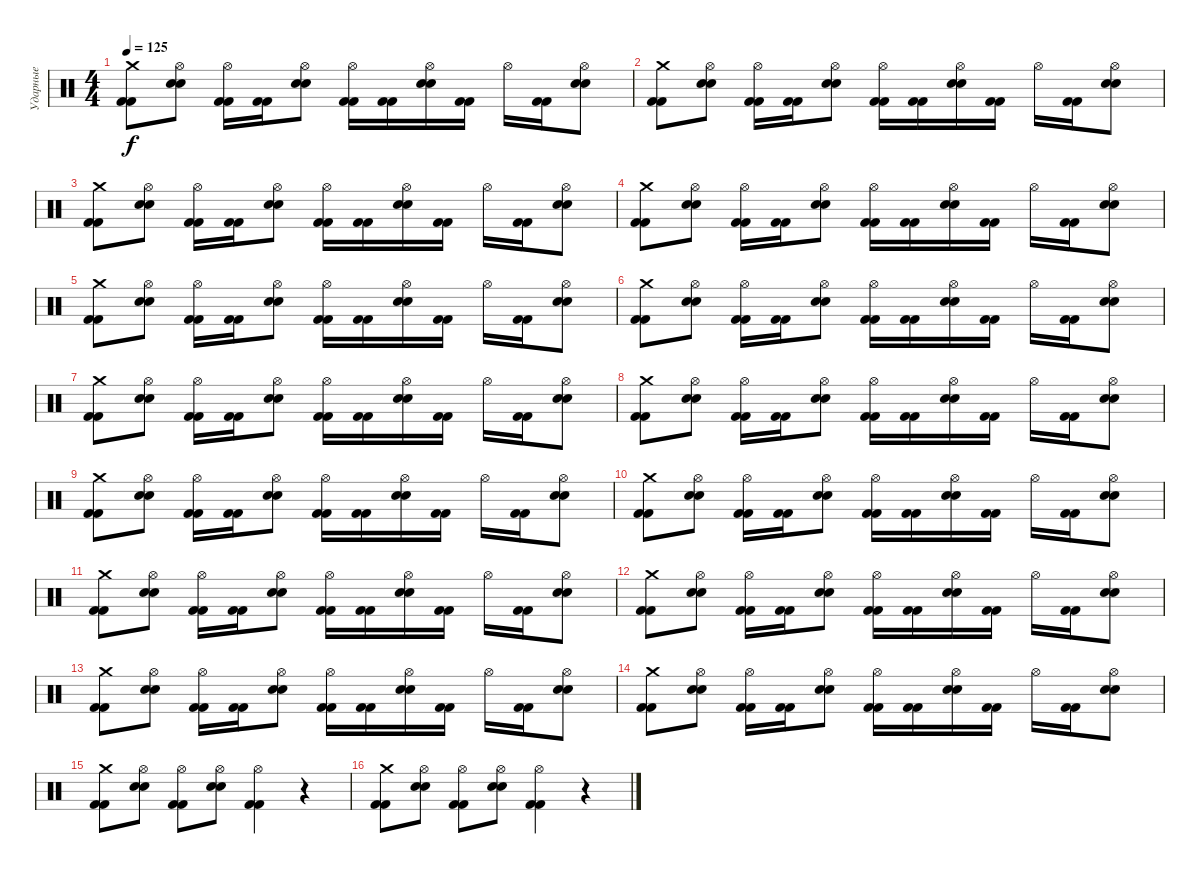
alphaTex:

\track ("Ударные" "Ударные") {instrument percussion}
\staff {score}
\articulation defaults
\ts (4 4)
\tempo 125
\clef neutral
\ks c
("Crash medium (hit)" "Kick (hit) 2" "Kick (hit) 2").8{dy f} ("Hi-Hat (open)" "Electric Snare (hit)" "Electric Snare (hit)").8 ("Hi-Hat (open)" "Kick (hit) 2" "Kick (hit) 2").16 ("Kick (hit) 2" "Kick (hit) 2").16 ("Hi-Hat (open)" "Electric Snare (hit)" "Electric Snare (hit)").8 ("Hi-Hat (open)" "Kick (hit) 2" "Kick (hit) 2").16 ("Kick (hit) 2" "Kick (hit) 2").16 ("Hi-Hat (open)" "Electric Snare (hit)" "Electric Snare (hit)").16 ("Kick (hit) 2" "Kick (hit) 2").16 "Hi-Hat (open)".16 ("Kick (hit) 2" "Kick (hit) 2").16 ("Hi-Hat (open)" "Electric Snare (hit)" "Electric Snare (hit)").8 |
("Crash medium (hit)" "Kick (hit) 2" "Kick (hit) 2").8 ("Hi-Hat (open)" "Electric Snare (hit)" "Electric Snare (hit)").8 ("Hi-Hat (open)" "Kick (hit) 2" "Kick (hit) 2").16 ("Kick (hit) 2" "Kick (hit) 2").16 ("Hi-Hat (open)" "Electric Snare (hit)" "Electric Snare (hit)").8 ("Hi-Hat (open)" "Kick (hit) 2" "Kick (hit) 2").16 ("Kick (hit) 2" "Kick (hit) 2").16 ("Hi-Hat (open)" "Electric Snare (hit)" "Electric Snare (hit)").16 ("Kick (hit) 2" "Kick (hit) 2").16 "Hi-Hat (open)".16 ("Kick (hit) 2" "Kick (hit) 2").16 ("Hi-Hat (open)" "Electric Snare (hit)" "Electric Snare (hit)").8 |
("Crash medium (hit)" "Kick (hit) 2" "Kick (hit) 2").8 ("Hi-Hat (open)" "Electric Snare (hit)" "Electric Snare (hit)").8 ("Hi-Hat (open)" "Kick (hit) 2" "Kick (hit) 2").16 ("Kick (hit) 2" "Kick (hit) 2").16 ("Hi-Hat (open)" "Electric Snare (hit)" "Electric Snare (hit)").8 ("Hi-Hat (open)" "Kick (hit) 2" "Kick (hit) 2").16 ("Kick (hit) 2" "Kick (hit) 2").16 ("Hi-Hat (open)" "Electric Snare (hit)" "Electric Snare (hit)").16 ("Kick (hit) 2" "Kick (hit) 2").16 "Hi-Hat (open)".16 ("Kick (hit) 2" "Kick (hit) 2").16 ("Hi-Hat (open)" "Electric Snare (hit)" "Electric Snare (hit)").8 |
("Crash medium (hit)" "Kick (hit) 2" "Kick (hit) 2").8 ("Hi-Hat (open)" "Electric Snare (hit)" "Electric Snare (hit)").8 ("Hi-Hat (open)" "Kick (hit) 2" "Kick (hit) 2").16 ("Kick (hit) 2" "Kick (hit) 2").16 ("Hi-Hat (open)" "Electric Snare (hit)" "Electric Snare (hit)").8 ("Hi-Hat (open)" "Kick (hit) 2" "Kick (hit) 2").16 ("Kick (hit) 2" "Kick (hit) 2").16 ("Hi-Hat (open)" "Electric Snare (hit)" "Electric Snare (hit)").16 ("Kick (hit) 2" "Kick (hit) 2").16 "Hi-Hat (open)".16 ("Kick (hit) 2" "Kick (hit) 2").16 ("Hi-Hat (open)" "Electric Snare (hit)" "Electric Snare (hit)").8 |
("Crash medium (hit)" "Kick (hit) 2" "Kick (hit) 2").8 ("Hi-Hat (open)" "Electric Snare (hit)" "Electric Snare (hit)").8 ("Hi-Hat (open)" "Kick (hit) 2" "Kick (hit) 2").16 ("Kick (hit) 2" "Kick (hit) 2").16 ("Hi-Hat (open)" "Electric Snare (hit)" "Electric Snare (hit)").8 ("Hi-Hat (open)" "Kick (hit) 2" "Kick (hit) 2").16 ("Kick (hit) 2" "Kick (hit) 2").16 ("Hi-Hat (open)" "Electric Snare (hit)" "Electric Snare (hit)").16 ("Kick (hit) 2" "Kick (hit) 2").16 "Hi-Hat (open)".16 ("Kick (hit) 2" "Kick (hit) 2").16 ("Hi-Hat (open)" "Electric Snare (hit)" "Electric Snare (hit)").8 |
("Crash medium (hit)" "Kick (hit) 2" "Kick (hit) 2").8 ("Hi-Hat (open)" "Electric Snare (hit)" "Electric Snare (hit)").8 ("Hi-Hat (open)" "Kick (hit) 2" "Kick (hit) 2").16 ("Kick (hit) 2" "Kick (hit) 2").16 ("Hi-Hat (open)" "Electric Snare (hit)" "Electric Snare (hit)").8 ("Hi-Hat (open)" "Kick (hit) 2" "Kick (hit) 2").16 ("Kick (hit) 2" "Kick (hit) 2").16 ("Hi-Hat (open)" "Electric Snare (hit)" "Electric Snare (hit)").16 ("Kick (hit) 2" "Kick (hit) 2").16 "Hi-Hat (open)".16 ("Kick (hit) 2" "Kick (hit) 2").16 ("Hi-Hat (open)" "Electric Snare (hit)" "Electric Snare (hit)").8 |
("Crash medium (hit)" "Kick (hit) 2" "Kick (hit) 2").8 ("Hi-Hat (open)" "Electric Snare (hit)" "Electric Snare (hit)").8 ("Hi-Hat (open)" "Kick (hit) 2" "Kick (hit) 2").16 ("Kick (hit) 2" "Kick (hit) 2").16 ("Hi-Hat (open)" "Electric Snare (hit)" "Electric Snare (hit)").8 ("Hi-Hat (open)" "Kick (hit) 2" "Kick (hit) 2").16 ("Kick (hit) 2" "Kick (hit) 2").16 ("Hi-Hat (open)" "Electric Snare (hit)" "Electric Snare (hit)").16 ("Kick (hit) 2" "Kick (hit) 2").16 "Hi-Hat (open)".16 ("Kick (hit) 2" "Kick (hit) 2").16 ("Hi-Hat (open)" "Electric Snare (hit)" "Electric Snare (hit)").8 |
("Crash medium (hit)" "Kick (hit) 2" "Kick (hit) 2").8 ("Hi-Hat (open)" "Electric Snare (hit)" "Electric Snare (hit)").8 ("Hi-Hat (open)" "Kick (hit) 2" "Kick (hit) 2").16 ("Kick (hit) 2" "Kick (hit) 2").16 ("Hi-Hat (open)" "Electric Snare (hit)" "Electric Snare (hit)").8 ("Hi-Hat (open)" "Kick (hit) 2" "Kick (hit) 2").16 ("Kick (hit) 2" "Kick (hit) 2").16 ("Hi-Hat (open)" "Electric Snare (hit)" "Electric Snare (hit)").16 ("Kick (hit) 2" "Kick (hit) 2").16 "Hi-Hat (open)".16 ("Kick (hit) 2" "Kick (hit) 2").16 ("Hi-Hat (open)" "Electric Snare (hit)" "Electric Snare (hit)").8 |
("Crash medium (hit)" "Kick (hit) 2" "Kick (hit) 2").8 ("Hi-Hat (open)" "Electric Snare (hit)" "Electric Snare (hit)").8 ("Hi-Hat (open)" "Kick (hit) 2" "Kick (hit) 2").16 ("Kick (hit) 2" "Kick (hit) 2").16 ("Hi-Hat (open)" "Electric Snare (hit)" "Electric Snare (hit)").8 ("Hi-Hat (open)" "Kick (hit) 2" "Kick (hit) 2").16 ("Kick (hit) 2" "Kick (hit) 2").16 ("Hi-Hat (open)" "Electric Snare (hit)" "Electric Snare (hit)").16 ("Kick (hit) 2" "Kick (hit) 2").16 "Hi-Hat (open)".16 ("Kick (hit) 2" "Kick (hit) 2").16 ("Hi-Hat (open)" "Electric Snare (hit)" "Electric Snare (hit)").8 |
("Crash medium (hit)" "Kick (hit) 2" "Kick (hit) 2").8 ("Hi-Hat (open)" "Electric Snare (hit)" "Electric Snare (hit)").8 ("Hi-Hat (open)" "Kick (hit) 2" "Kick (hit) 2").16 ("Kick (hit) 2" "Kick (hit) 2").16 ("Hi-Hat (open)" "Electric Snare (hit)" "Electric Snare (hit)").8 ("Hi-Hat (open)" "Kick (hit) 2" "Kick (hit) 2").16 ("Kick (hit) 2" "Kick (hit) 2").16 ("Hi-Hat (open)" "Electric Snare (hit)" "Electric Snare (hit)").16 ("Kick (hit) 2" "Kick (hit) 2").16 "Hi-Hat (open)".16 ("Kick (hit) 2" "Kick (hit) 2").16 ("Hi-Hat (open)" "Electric Snare (hit)" "Electric Snare (hit)").8 |
("Crash medium (hit)" "Kick (hit) 2" "Kick (hit) 2").8 ("Hi-Hat (open)" "Electric Snare (hit)" "Electric Snare (hit)").8 ("Hi-Hat (open)" "Kick (hit) 2" "Kick (hit) 2").16 ("Kick (hit) 2" "Kick (hit) 2").16 ("Hi-Hat (open)" "Electric Snare (hit)" "Electric Snare (hit)").8 ("Hi-Hat (open)" "Kick (hit) 2" "Kick (hit) 2").16 ("Kick (hit) 2" "Kick (hit) 2").16 ("Hi-Hat (open)" "Electric Snare (hit)" "Electric Snare (hit)").16 ("Kick (hit) 2" "Kick (hit) 2").16 "Hi-Hat (open)".16 ("Kick (hit) 2" "Kick (hit) 2").16 ("Hi-Hat (open)" "Electric Snare (hit)" "Electric Snare (hit)").8 |
("Crash medium (hit)" "Kick (hit) 2" "Kick (hit) 2").8 ("Hi-Hat (open)" "Electric Snare (hit)" "Electric Snare (hit)").8 ("Hi-Hat (open)" "Kick (hit) 2" "Kick (hit) 2").16 ("Kick (hit) 2" "Kick (hit) 2").16 ("Hi-Hat (open)" "Electric Snare (hit)" "Electric Snare (hit)").8 ("Hi-Hat (open)" "Kick (hit) 2" "Kick (hit) 2").16 ("Kick (hit) 2" "Kick (hit) 2").16 ("Hi-Hat (open)" "Electric Snare (hit)" "Electric Snare (hit)").16 ("Kick (hit) 2" "Kick (hit) 2").16 "Hi-Hat (open)".16 ("Kick (hit) 2" "Kick (hit) 2").16 ("Hi-Hat (open)" "Electric Snare (hit)" "Electric Snare (hit)").8 |
("Crash medium (hit)" "Kick (hit) 2" "Kick (hit) 2").8 ("Hi-Hat (open)" "Electric Snare (hit)" "Electric Snare (hit)").8 ("Hi-Hat (open)" "Kick (hit) 2" "Kick (hit) 2").16 ("Kick (hit) 2" "Kick (hit) 2").16 ("Hi-Hat (open)" "Electric Snare (hit)" "Electric Snare (hit)").8 ("Hi-Hat (open)" "Kick (hit) 2" "Kick (hit) 2").16 ("Kick (hit) 2" "Kick (hit) 2").16 ("Hi-Hat (open)" "Electric Snare (hit)" "Electric Snare (hit)").16 ("Kick (hit) 2" "Kick (hit) 2").16 "Hi-Hat (open)".16 ("Kick (hit) 2" "Kick (hit) 2").16 ("Hi-Hat (open)" "Electric Snare (hit)" "Electric Snare (hit)").8 |
("Crash medium (hit)" "Kick (hit) 2" "Kick (hit) 2").8 ("Hi-Hat (open)" "Electric Snare (hit)" "Electric Snare (hit)").8 ("Hi-Hat (open)" "Kick (hit) 2" "Kick (hit) 2").16 ("Kick (hit) 2" "Kick (hit) 2").16 ("Hi-Hat (open)" "Electric Snare (hit)" "Electric Snare (hit)").8 ("Hi-Hat (open)" "Kick (hit) 2" "Kick (hit) 2").16 ("Kick (hit) 2" "Kick (hit) 2").16 ("Hi-Hat (open)" "Electric Snare (hit)" "Electric Snare (hit)").16 ("Kick (hit) 2" "Kick (hit) 2").16 "Hi-Hat (open)".16 ("Kick (hit) 2" "Kick (hit) 2").16 ("Hi-Hat (open)" "Electric Snare (hit)" "Electric Snare (hit)").8 |
("Crash medium (hit)" "Kick (hit) 2" "Kick (hit) 2").8 ("Hi-Hat (open)" "Electric Snare (hit)" "Electric Snare (hit)").8 ("Hi-Hat (open)" "Kick (hit) 2" "Kick (hit) 2").8 ("Hi-Hat (open)" "Electric Snare (hit)" "Electric Snare (hit)").8 ("Hi-Hat (open)" "Kick (hit) 2" "Kick (hit) 2").4 r.4 |
("Crash medium (hit)" "Kick (hit) 2" "Kick (hit) 2").8 ("Hi-Hat (open)" "Electric Snare (hit)" "Electric Snare (hit)").8 ("Hi-Hat (open)" "Kick (hit) 2" "Kick (hit) 2").8 ("Hi-Hat (open)" "Electric Snare (hit)" "Electric Snare (hit)").8 ("Hi-Hat (open)" "Kick (hit) 2" "Kick (hit) 2").4 r.4
